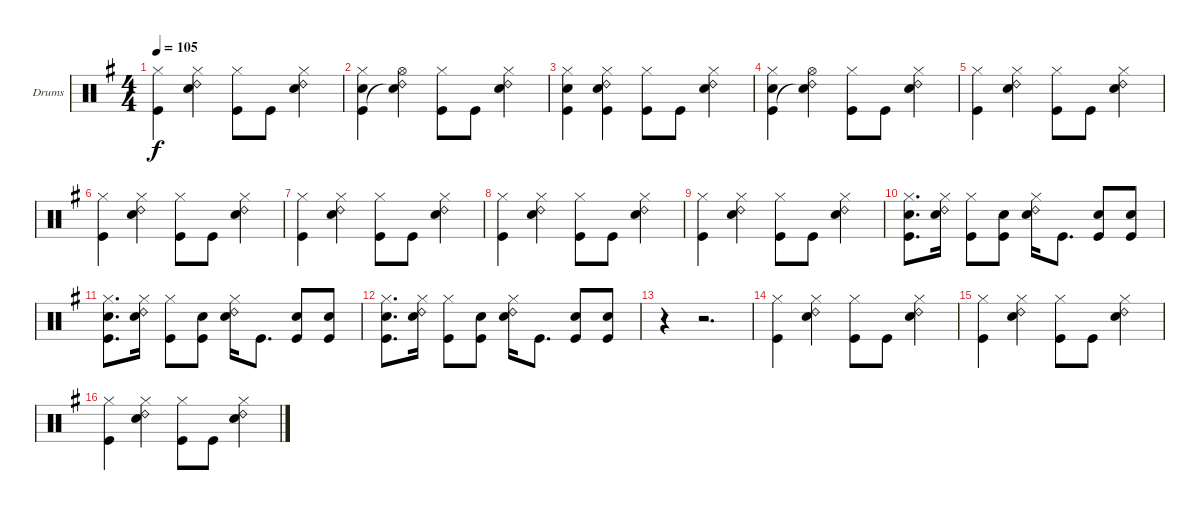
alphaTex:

\bracketExtendMode groupsimilarinstruments
\firstSystemTrackNameOrientation horizontal
\otherSystemsTrackNameOrientation horizontal
\track ("Drumkit" "Drums") {instrument percussion}
\staff {score}
\articulation defaults
\ts (4 4)
\tempo 105
\clef neutral
\ks g
("Hi-Hat (closed)" "Kick (hit)").4{dy f} ("Hi-Hat (closed)" "Ride (bell) 2" "Snare (hit) 2").4 ("Hi-Hat (closed)" "Kick (hit)").8 "Kick (hit)".8 ("Hi-Hat (closed)" "Ride (bell) 2" "Snare (hit) 2").4 |
("Snare (hit) 2" "Hi-Hat (closed)" "Kick (hit)").4 ("Hi-Hat (open)" "Ride (bell) 2" "Snare (hit) 2"{t}).4 ("Hi-Hat (closed)" "Kick (hit)").8 "Kick (hit)".8 ("Hi-Hat (closed)" "Ride (bell) 2" "Snare (hit) 2").4 |
("Snare (hit) 2" "Hi-Hat (closed)" "Kick (hit)").4 ("Kick (hit)" "Hi-Hat (closed)" "Ride (bell) 2" "Snare (hit) 2").4 ("Hi-Hat (closed)" "Kick (hit)").8 "Kick (hit)".8 ("Hi-Hat (closed)" "Ride (bell) 2" "Snare (hit) 2").4 |
("Snare (hit) 2" "Hi-Hat (closed)" "Kick (hit)").4 ("Hi-Hat (open)" "Ride (bell) 2" "Snare (hit) 2"{t}).4 ("Hi-Hat (closed)" "Kick (hit)").8 "Kick (hit)".8 ("Hi-Hat (closed)" "Ride (bell) 2" "Snare (hit) 2").4 |
("Hi-Hat (closed)" "Kick (hit)").4 ("Hi-Hat (closed)" "Ride (bell) 2" "Snare (hit) 2").4 ("Hi-Hat (closed)" "Kick (hit)").8 "Kick (hit)".8 ("Hi-Hat (closed)" "Ride (bell) 2" "Snare (hit) 2").4 |
("Hi-Hat (closed)" "Kick (hit)").4 ("Hi-Hat (closed)" "Ride (bell) 2" "Snare (hit) 2").4 ("Hi-Hat (closed)" "Kick (hit)").8 "Kick (hit)".8 ("Hi-Hat (closed)" "Ride (bell) 2" "Snare (hit) 2").4 |
("Hi-Hat (closed)" "Kick (hit)").4 ("Hi-Hat (closed)" "Ride (bell) 2" "Snare (hit) 2").4 ("Hi-Hat (closed)" "Kick (hit)").8 "Kick (hit)".8 ("Hi-Hat (closed)" "Ride (bell) 2" "Snare (hit) 2").4 |
("Hi-Hat (closed)" "Kick (hit)").4 ("Hi-Hat (closed)" "Ride (bell) 2" "Snare (hit) 2").4 ("Hi-Hat (closed)" "Kick (hit)").8 "Kick (hit)".8 ("Hi-Hat (closed)" "Ride (bell) 2" "Snare (hit) 2").4 |
("Hi-Hat (closed)" "Kick (hit)").4 ("Hi-Hat (closed)" "Ride (bell) 2" "Snare (hit) 2").4 ("Hi-Hat (closed)" "Kick (hit)").8 "Kick (hit)".8 ("Hi-Hat (closed)" "Ride (bell) 2" "Snare (hit) 2").4 |
("Snare (hit) 2" "Hi-Hat (closed)" "Kick (hit)").8{d} ("Hi-Hat (closed)" "Ride (bell) 2" "Snare (hit) 2").16 ("Hi-Hat (closed)" "Kick (hit)").8 ("Snare (hit) 2" "Kick (hit)").8 ("Hi-Hat (closed)" "Ride (bell) 2" "Snare (hit) 2").16 "Kick (hit)".8{d} ("Snare (hit) 2" "Kick (hit)").8 ("Snare (hit) 2" "Kick (hit)").8 |
("Snare (hit) 2" "Hi-Hat (closed)" "Kick (hit)").8{d} ("Hi-Hat (closed)" "Ride (bell) 2" "Snare (hit) 2").16 ("Hi-Hat (closed)" "Kick (hit)").8 ("Snare (hit) 2" "Kick (hit)").8 ("Hi-Hat (closed)" "Ride (bell) 2" "Snare (hit) 2").16 "Kick (hit)".8{d} ("Snare (hit) 2" "Kick (hit)").8 ("Snare (hit) 2" "Kick (hit)").8 |
("Snare (hit) 2" "Hi-Hat (closed)" "Kick (hit)").8{d} ("Hi-Hat (closed)" "Ride (bell) 2" "Snare (hit) 2").16 ("Hi-Hat (closed)" "Kick (hit)").8 ("Snare (hit) 2" "Kick (hit)").8 ("Hi-Hat (closed)" "Ride (bell) 2" "Snare (hit) 2").16 "Kick (hit)".8{d} ("Snare (hit) 2" "Kick (hit)").8 ("Snare (hit) 2" "Kick (hit)").8 |
r.4 r.2{d} |
("Hi-Hat (closed)" "Kick (hit)").4 ("Hi-Hat (closed)" "Ride (bell) 2" "Snare (hit) 2").4 ("Hi-Hat (closed)" "Kick (hit)").8 "Kick (hit)".8 ("Hi-Hat (closed)" "Ride (bell) 2" "Snare (hit) 2").4 |
("Hi-Hat (closed)" "Kick (hit)").4 ("Hi-Hat (closed)" "Ride (bell) 2" "Snare (hit) 2").4 ("Hi-Hat (closed)" "Kick (hit)").8 "Kick (hit)".8 ("Hi-Hat (closed)" "Ride (bell) 2" "Snare (hit) 2").4 |
("Hi-Hat (closed)" "Kick (hit)").4 ("Hi-Hat (closed)" "Ride (bell) 2" "Snare (hit) 2").4 ("Hi-Hat (closed)" "Kick (hit)").8 "Kick (hit)".8 ("Hi-Hat (closed)" "Ride (bell) 2" "Snare (hit) 2").4
